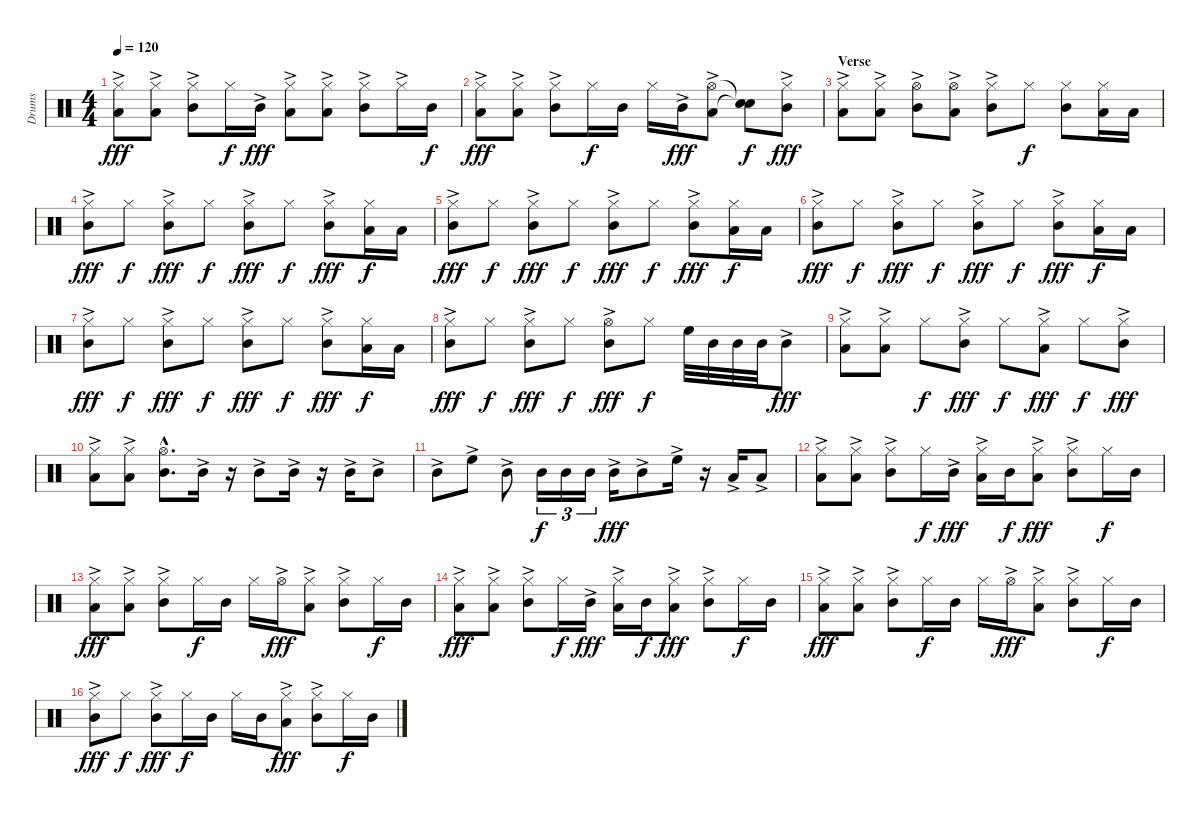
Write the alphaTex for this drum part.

\track ("Drums" "Drums") {instrument percussion}
\staff {score}
\articulation defaults
\ts (4 4)
\tempo 120
\clef neutral
\ks c
("Hi-Hat (closed)"{ac} "Low Floor Tom (hit)").8{dy fff} ("Hi-Hat (closed)"{ac} "Low Floor Tom (hit)").8 ("Hi-Hat (closed)"{ac} "Mid Tom (hit)").8 "Hi-Hat (closed)".16{dy f} "Mid Tom (hit)"{ac}.16{dy fff} ("Hi-Hat (closed)"{ac} "Low Floor Tom (hit)").8 ("Hi-Hat (closed)"{ac} "Low Floor Tom (hit)").8 ("Hi-Hat (closed)"{ac} "Mid Tom (hit)").8 "Hi-Hat (closed)"{ac}.16 "Mid Tom (hit)".16{dy f} |
("Hi-Hat (closed)"{ac} "Low Floor Tom (hit)").8{dy fff} ("Hi-Hat (closed)"{ac} "Low Floor Tom (hit)").8 ("Hi-Hat (closed)"{ac} "Mid Tom (hit)").8 "Hi-Hat (closed)".16{dy f} "Mid Tom (hit)".16 "Hi-Hat (closed)".16 "Mid Tom (hit)"{ac}.16{dy fff} ("Hi-Hat (open)"{ac} "Low Floor Tom (hit)").8 ("Snare (hit)"{t} "Snare (hit)"{t}).8{dy f} ("Hi-Hat (closed)"{ac} "Mid Tom (hit)").8{dy fff} |
\section ("" "Verse")
("Hi-Hat (closed)"{ac} "Low Floor Tom (hit)").8 ("Hi-Hat (closed)"{ac} "Low Floor Tom (hit)").8 ("Hi-Hat (open)"{ac} "Mid Tom (hit)").8 ("Hi-Hat (open)"{ac} "Low Floor Tom (hit)").8 ("Hi-Hat (closed)"{ac} "Mid Tom (hit)").8 "Hi-Hat (closed)".8{dy f} ("Hi-Hat (closed)" "Mid Tom (hit)").8 ("Hi-Hat (closed)" "Low Floor Tom (hit)").16 "Low Floor Tom (hit)".16 |
("Hi-Hat (closed)"{ac} "Mid Tom (hit)").8{dy fff} "Hi-Hat (closed)".8{dy f} ("Hi-Hat (closed)"{ac} "Mid Tom (hit)").8{dy fff} "Hi-Hat (closed)".8{dy f} ("Hi-Hat (closed)"{ac} "Mid Tom (hit)").8{dy fff} "Hi-Hat (closed)".8{dy f} ("Hi-Hat (closed)"{ac} "Mid Tom (hit)").8{dy fff} ("Hi-Hat (closed)" "Low Floor Tom (hit)").16{dy f} "Low Floor Tom (hit)".16 |
("Hi-Hat (closed)"{ac} "Mid Tom (hit)").8{dy fff} "Hi-Hat (closed)".8{dy f} ("Hi-Hat (closed)"{ac} "Mid Tom (hit)").8{dy fff} "Hi-Hat (closed)".8{dy f} ("Hi-Hat (closed)"{ac} "Mid Tom (hit)").8{dy fff} "Hi-Hat (closed)".8{dy f} ("Hi-Hat (closed)"{ac} "Mid Tom (hit)").8{dy fff} ("Hi-Hat (closed)" "Low Floor Tom (hit)").16{dy f} "Low Floor Tom (hit)".16 |
("Hi-Hat (closed)"{ac} "Mid Tom (hit)").8{dy fff} "Hi-Hat (closed)".8{dy f} ("Hi-Hat (closed)"{ac} "Mid Tom (hit)").8{dy fff} "Hi-Hat (closed)".8{dy f} ("Hi-Hat (closed)"{ac} "Mid Tom (hit)").8{dy fff} "Hi-Hat (closed)".8{dy f} ("Hi-Hat (closed)"{ac} "Mid Tom (hit)").8{dy fff} ("Hi-Hat (closed)" "Low Floor Tom (hit)").16{dy f} "Low Floor Tom (hit)".16 |
("Hi-Hat (closed)"{ac} "Mid Tom (hit)").8{dy fff} "Hi-Hat (closed)".8{dy f} ("Hi-Hat (closed)"{ac} "Mid Tom (hit)").8{dy fff} "Hi-Hat (closed)".8{dy f} ("Hi-Hat (closed)"{ac} "Mid Tom (hit)").8{dy fff} "Hi-Hat (closed)".8{dy f} ("Hi-Hat (closed)"{ac} "Mid Tom (hit)").8{dy fff} ("Hi-Hat (closed)" "Low Floor Tom (hit)").16{dy f} "Low Floor Tom (hit)".16 |
("Hi-Hat (closed)"{ac} "Mid Tom (hit)").8{dy fff} "Hi-Hat (closed)".8{dy f} ("Hi-Hat (closed)"{ac} "Mid Tom (hit)").8{dy fff} "Hi-Hat (closed)".8{dy f} ("Hi-Hat (open)"{ac} "Mid Tom (hit)").8{dy fff} "Hi-Hat (closed)".8{dy f} "High Floor Tom (hit)".32 "Mid Tom (hit)".32 "Mid Tom (hit)".32 "Mid Tom (hit)".32 "Mid Tom (hit)"{ac}.8{dy fff} |
("Hi-Hat (closed)"{ac} "Low Floor Tom (hit)").8 ("Hi-Hat (closed)"{ac} "Low Floor Tom (hit)").8 "Hi-Hat (closed)".8{dy f} ("Hi-Hat (closed)"{ac} "Mid Tom (hit)").8{dy fff} "Hi-Hat (closed)".8{dy f} ("Hi-Hat (closed)"{ac} "Low Floor Tom (hit)").8{dy fff} "Hi-Hat (closed)".8{dy f} ("Hi-Hat (closed)"{ac} "Mid Tom (hit)").8{dy fff} |
("Hi-Hat (closed)"{ac} "Low Floor Tom (hit)").8 ("Hi-Hat (closed)"{ac} "Low Floor Tom (hit)").8 ("Hi-Hat (open)"{hac} "Mid Tom (hit)"{hac}).8{d} "Mid Tom (hit)"{ac}.16 r.16 "Mid Tom (hit)"{ac}.8 "Mid Tom (hit)"{ac}.16 r.16 "Mid Tom (hit)"{ac}.16 "Mid Tom (hit)"{ac}.8 |
"Mid Tom (hit)"{ac}.8 "High Floor Tom (hit)"{ac}.8 "Mid Tom (hit)"{ac}.8 "Mid Tom (hit)".16{tu (3 2) dy f} "Mid Tom (hit)".16{tu (3 2)} "Mid Tom (hit)".16{tu (3 2)} "Mid Tom (hit)"{ac}.16{dy fff} "Mid Tom (hit)"{ac}.8 "High Floor Tom (hit)"{ac}.16 r.16 "Low Tom (hit)"{ac}.16 "Low Tom (hit)"{ac}.8 |
("Hi-Hat (closed)"{ac} "Low Floor Tom (hit)").8 ("Hi-Hat (closed)"{ac} "Low Floor Tom (hit)").8 ("Hi-Hat (closed)"{ac} "Mid Tom (hit)").8 "Hi-Hat (closed)".16{dy f} "Mid Tom (hit)"{ac}.16{dy fff} ("Hi-Hat (closed)"{ac} "Low Floor Tom (hit)").16 "Mid Tom (hit)".16{dy f} ("Hi-Hat (closed)"{ac} "Low Floor Tom (hit)").8{dy fff} ("Hi-Hat (closed)"{ac} "Mid Tom (hit)").8 "Hi-Hat (closed)".16{dy f} "Mid Tom (hit)".16 |
("Hi-Hat (closed)"{ac} "Low Floor Tom (hit)").8{dy fff} ("Hi-Hat (closed)"{ac} "Low Floor Tom (hit)").8 ("Hi-Hat (closed)"{ac} "Mid Tom (hit)").8 "Hi-Hat (closed)".16{dy f} "Mid Tom (hit)".16 "Hi-Hat (closed)".16 "Hi-Hat (open)"{ac}.16{dy fff} ("Hi-Hat (closed)"{ac} "Low Floor Tom (hit)").8 ("Hi-Hat (closed)"{ac} "Mid Tom (hit)").8 "Hi-Hat (closed)".16{dy f} "Mid Tom (hit)".16 |
("Hi-Hat (closed)"{ac} "Low Floor Tom (hit)").8{dy fff} ("Hi-Hat (closed)"{ac} "Low Floor Tom (hit)").8 ("Hi-Hat (closed)"{ac} "Mid Tom (hit)").8 "Hi-Hat (closed)".16{dy f} "Mid Tom (hit)"{ac}.16{dy fff} ("Hi-Hat (closed)"{ac} "Low Floor Tom (hit)").16 "Mid Tom (hit)".16{dy f} ("Hi-Hat (closed)"{ac} "Low Floor Tom (hit)").8{dy fff} ("Hi-Hat (closed)"{ac} "Mid Tom (hit)").8 "Hi-Hat (closed)".16{dy f} "Mid Tom (hit)".16 |
("Hi-Hat (closed)"{ac} "Low Floor Tom (hit)").8{dy fff} ("Hi-Hat (closed)"{ac} "Low Floor Tom (hit)").8 ("Hi-Hat (closed)"{ac} "Mid Tom (hit)").8 "Hi-Hat (closed)".16{dy f} "Mid Tom (hit)".16 "Hi-Hat (closed)".16 "Hi-Hat (open)"{ac}.16{dy fff} ("Hi-Hat (closed)"{ac} "Low Floor Tom (hit)").8 ("Hi-Hat (closed)"{ac} "Mid Tom (hit)").8 "Hi-Hat (closed)".16{dy f} "Mid Tom (hit)".16 |
("Hi-Hat (closed)"{ac} "Mid Tom (hit)").8{dy fff} "Hi-Hat (closed)".8{dy f} ("Hi-Hat (closed)"{ac} "Mid Tom (hit)").8{dy fff} "Hi-Hat (closed)".16{dy f} "Mid Tom (hit)".16 "Hi-Hat (closed)".16 "Mid Tom (hit)".16 ("Hi-Hat (closed)"{ac} "Low Floor Tom (hit)").8{dy fff} ("Hi-Hat (closed)"{ac} "Mid Tom (hit)").8 "Hi-Hat (closed)".16{dy f} "Mid Tom (hit)".16
